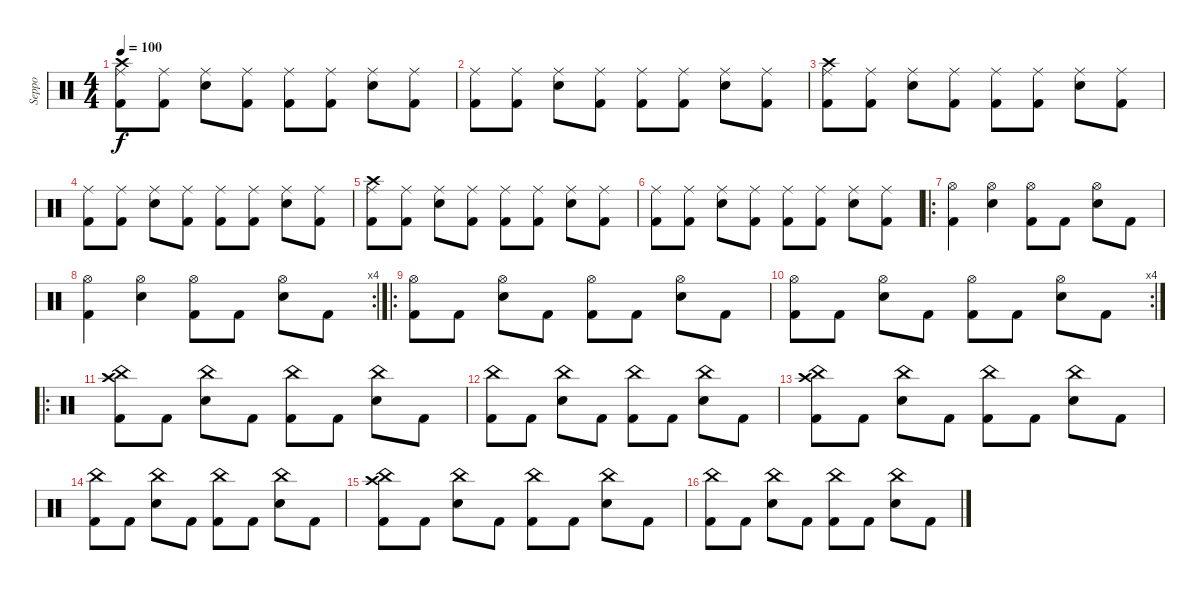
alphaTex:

\track ("Seppo" "Seppo") {instrument percussion}
\staff {score}
\articulation defaults
\ts (4 4)
\tempo 100
\clef neutral
\ks c
("Crash high (hit)" "Ride (middle)" "Kick (hit) 2").8{dy f} ("Ride (middle)" "Kick (hit) 2").8 ("Ride (middle)" "Electric Snare (hit)").8 ("Ride (middle)" "Kick (hit) 2").8 ("Ride (middle)" "Kick (hit) 2").8 ("Ride (middle)" "Kick (hit) 2").8 ("Ride (middle)" "Electric Snare (hit)").8 ("Ride (middle)" "Kick (hit) 2").8 |
("Ride (middle)" "Kick (hit) 2").8 ("Ride (middle)" "Kick (hit) 2").8 ("Ride (middle)" "Electric Snare (hit)").8 ("Ride (middle)" "Kick (hit) 2").8 ("Ride (middle)" "Kick (hit) 2").8 ("Ride (middle)" "Kick (hit) 2").8 ("Ride (middle)" "Electric Snare (hit)").8 ("Ride (middle)" "Kick (hit) 2").8 |
("Crash high (hit)" "Ride (middle)" "Kick (hit) 2").8 ("Ride (middle)" "Kick (hit) 2").8 ("Ride (middle)" "Electric Snare (hit)").8 ("Ride (middle)" "Kick (hit) 2").8 ("Ride (middle)" "Kick (hit) 2").8 ("Ride (middle)" "Kick (hit) 2").8 ("Ride (middle)" "Electric Snare (hit)").8 ("Ride (middle)" "Kick (hit) 2").8 |
("Ride (middle)" "Kick (hit) 2").8 ("Ride (middle)" "Kick (hit) 2").8 ("Ride (middle)" "Electric Snare (hit)").8 ("Ride (middle)" "Kick (hit) 2").8 ("Ride (middle)" "Kick (hit) 2").8 ("Ride (middle)" "Kick (hit) 2").8 ("Ride (middle)" "Electric Snare (hit)").8 ("Ride (middle)" "Kick (hit) 2").8 |
("Crash high (hit)" "Ride (middle)" "Kick (hit) 2").8 ("Ride (middle)" "Kick (hit) 2").8 ("Ride (middle)" "Electric Snare (hit)").8 ("Ride (middle)" "Kick (hit) 2").8 ("Ride (middle)" "Kick (hit) 2").8 ("Ride (middle)" "Kick (hit) 2").8 ("Ride (middle)" "Electric Snare (hit)").8 ("Ride (middle)" "Kick (hit) 2").8 |
("Ride (middle)" "Kick (hit) 2").8 ("Ride (middle)" "Kick (hit) 2").8 ("Ride (middle)" "Electric Snare (hit)").8 ("Ride (middle)" "Kick (hit) 2").8 ("Ride (middle)" "Kick (hit) 2").8 ("Ride (middle)" "Kick (hit) 2").8 ("Ride (middle)" "Electric Snare (hit)").8 ("Ride (middle)" "Kick (hit) 2").8 |
\ro
("Hi-Hat (open)" "Kick (hit) 2").4 ("Hi-Hat (open)" "Electric Snare (hit)").4 ("Hi-Hat (open)" "Kick (hit) 2").8 "Kick (hit) 2".8 ("Hi-Hat (open)" "Electric Snare (hit)").8 "Kick (hit) 2".8 |
\rc 4
("Hi-Hat (open)" "Kick (hit) 2").4 ("Hi-Hat (open)" "Electric Snare (hit)").4 ("Hi-Hat (open)" "Kick (hit) 2").8 "Kick (hit) 2".8 ("Hi-Hat (open)" "Electric Snare (hit)").8 "Kick (hit) 2".8 |
\ro
("Hi-Hat (open)" "Kick (hit) 2").8 "Kick (hit) 2".8 ("Hi-Hat (open)" "Electric Snare (hit)").8 "Kick (hit) 2".8 ("Hi-Hat (open)" "Kick (hit) 2").8 "Kick (hit) 2".8 ("Hi-Hat (open)" "Electric Snare (hit)").8 "Kick (hit) 2".8 |
\rc 4
("Hi-Hat (open)" "Kick (hit) 2").8 "Kick (hit) 2".8 ("Hi-Hat (open)" "Electric Snare (hit)").8 "Kick (hit) 2".8 ("Hi-Hat (open)" "Kick (hit) 2").8 "Kick (hit) 2".8 ("Hi-Hat (open)" "Electric Snare (hit)").8 "Kick (hit) 2".8 |
\ro
("Crash high (hit)" "China (hit)" "Kick (hit) 2").8 "Kick (hit) 2".8 ("China (hit)" "Electric Snare (hit)").8 "Kick (hit) 2".8 ("China (hit)" "Kick (hit) 2").8 "Kick (hit) 2".8 ("China (hit)" "Electric Snare (hit)").8 "Kick (hit) 2".8 |
("China (hit)" "Kick (hit) 2").8 "Kick (hit) 2".8 ("China (hit)" "Electric Snare (hit)").8 "Kick (hit) 2".8 ("China (hit)" "Kick (hit) 2").8 "Kick (hit) 2".8 ("China (hit)" "Electric Snare (hit)").8 "Kick (hit) 2".8 |
("Crash high (hit)" "China (hit)" "Kick (hit) 2").8 "Kick (hit) 2".8 ("China (hit)" "Electric Snare (hit)").8 "Kick (hit) 2".8 ("China (hit)" "Kick (hit) 2").8 "Kick (hit) 2".8 ("China (hit)" "Electric Snare (hit)").8 "Kick (hit) 2".8 |
("China (hit)" "Kick (hit) 2").8 "Kick (hit) 2".8 ("China (hit)" "Electric Snare (hit)").8 "Kick (hit) 2".8 ("China (hit)" "Kick (hit) 2").8 "Kick (hit) 2".8 ("China (hit)" "Electric Snare (hit)").8 "Kick (hit) 2".8 |
("Crash high (hit)" "China (hit)" "Kick (hit) 2").8 "Kick (hit) 2".8 ("China (hit)" "Electric Snare (hit)").8 "Kick (hit) 2".8 ("China (hit)" "Kick (hit) 2").8 "Kick (hit) 2".8 ("China (hit)" "Electric Snare (hit)").8 "Kick (hit) 2".8 |
("China (hit)" "Kick (hit) 2").8 "Kick (hit) 2".8 ("China (hit)" "Electric Snare (hit)").8 "Kick (hit) 2".8 ("China (hit)" "Kick (hit) 2").8 "Kick (hit) 2".8 ("China (hit)" "Electric Snare (hit)").8 "Kick (hit) 2".8
